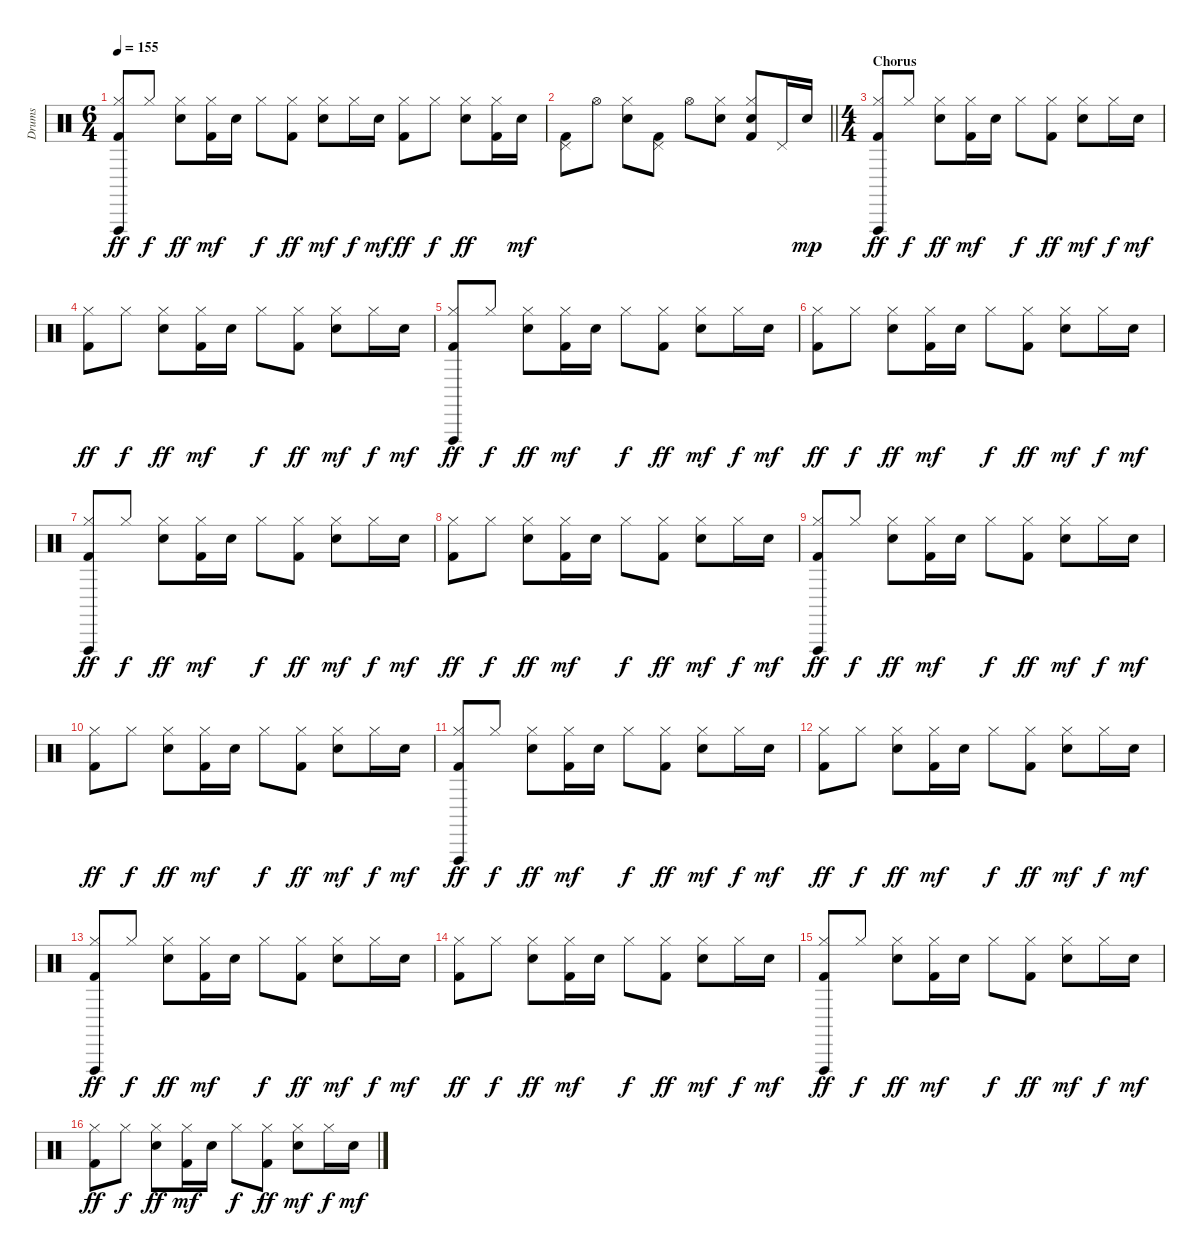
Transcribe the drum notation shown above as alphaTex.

\track ("Drums" "Drums") {instrument percussion}
\staff {score}
\articulation defaults
\ts (6 4)
\tempo 155
\clef neutral
\ks c
("Kick (hit) 2" "Hi-Hat (closed)" "Vibraslap (hit)").8{dy ff} "Hi-Hat (closed)".8{dy f} ("Snare (hit) 2" "Hi-Hat (closed)").8{dy ff} ("Kick (hit) 2" "Hi-Hat (closed)").16{dy mf} "Snare (hit) 2".16 "Hi-Hat (closed)".8{dy f} ("Kick (hit) 2" "Hi-Hat (closed)").8{dy ff} ("Snare (hit) 2" "Hi-Hat (closed)").8{dy mf} "Hi-Hat (closed)".16{dy f} "Snare (hit) 2".16{dy mf} ("Kick (hit) 2" "Hi-Hat (closed)").8{dy ff} "Hi-Hat (closed)".8{dy f} ("Snare (hit) 2" "Hi-Hat (closed)").8{dy ff} ("Kick (hit) 2" "Hi-Hat (closed)").16 "Snare (hit) 2".16{dy mf} |
\barLineRight lightlight
("Kick (hit) 2" "Pedal Hi-Hat (hit)").8 "Hi-Hat (open)".8 ("Snare (hit) 2" "Hi-Hat (closed)").8 ("Kick (hit) 2" "Pedal Hi-Hat (hit)").8 "Hi-Hat (open)".8 ("Snare (hit) 2" "Hi-Hat (closed)").8 ("Kick (hit) 2" "Snare (hit) 2" "Hi-Hat (closed)").8 "Pedal Hi-Hat (hit)".16 "Snare (hit) 2".16{dy mp} |
\ts (4 4)
\section ("" "Chorus")
("Kick (hit) 2" "Hi-Hat (closed)" "Vibraslap (hit)").8{dy ff} "Hi-Hat (closed)".8{dy f} ("Snare (hit) 2" "Hi-Hat (closed)").8{dy ff} ("Kick (hit) 2" "Hi-Hat (closed)").16{dy mf} "Snare (hit) 2".16 "Hi-Hat (closed)".8{dy f} ("Kick (hit) 2" "Hi-Hat (closed)").8{dy ff} ("Snare (hit) 2" "Hi-Hat (closed)").8{dy mf} "Hi-Hat (closed)".16{dy f} "Snare (hit) 2".16{dy mf} |
("Kick (hit) 2" "Hi-Hat (closed)").8{dy ff} "Hi-Hat (closed)".8{dy f} ("Snare (hit) 2" "Hi-Hat (closed)").8{dy ff} ("Kick (hit) 2" "Hi-Hat (closed)").16{dy mf} "Snare (hit) 2".16 "Hi-Hat (closed)".8{dy f} ("Kick (hit) 2" "Hi-Hat (closed)").8{dy ff} ("Snare (hit) 2" "Hi-Hat (closed)").8{dy mf} "Hi-Hat (closed)".16{dy f} "Snare (hit) 2".16{dy mf} |
("Kick (hit) 2" "Hi-Hat (closed)" "Vibraslap (hit)").8{dy ff} "Hi-Hat (closed)".8{dy f} ("Snare (hit) 2" "Hi-Hat (closed)").8{dy ff} ("Kick (hit) 2" "Hi-Hat (closed)").16{dy mf} "Snare (hit) 2".16 "Hi-Hat (closed)".8{dy f} ("Kick (hit) 2" "Hi-Hat (closed)").8{dy ff} ("Snare (hit) 2" "Hi-Hat (closed)").8{dy mf} "Hi-Hat (closed)".16{dy f} "Snare (hit) 2".16{dy mf} |
("Kick (hit) 2" "Hi-Hat (closed)").8{dy ff} "Hi-Hat (closed)".8{dy f} ("Snare (hit) 2" "Hi-Hat (closed)").8{dy ff} ("Kick (hit) 2" "Hi-Hat (closed)").16{dy mf} "Snare (hit) 2".16 "Hi-Hat (closed)".8{dy f} ("Kick (hit) 2" "Hi-Hat (closed)").8{dy ff} ("Snare (hit) 2" "Hi-Hat (closed)").8{dy mf} "Hi-Hat (closed)".16{dy f} "Snare (hit) 2".16{dy mf} |
("Kick (hit) 2" "Hi-Hat (closed)" "Vibraslap (hit)").8{dy ff} "Hi-Hat (closed)".8{dy f} ("Snare (hit) 2" "Hi-Hat (closed)").8{dy ff} ("Kick (hit) 2" "Hi-Hat (closed)").16{dy mf} "Snare (hit) 2".16 "Hi-Hat (closed)".8{dy f} ("Kick (hit) 2" "Hi-Hat (closed)").8{dy ff} ("Snare (hit) 2" "Hi-Hat (closed)").8{dy mf} "Hi-Hat (closed)".16{dy f} "Snare (hit) 2".16{dy mf} |
("Kick (hit) 2" "Hi-Hat (closed)").8{dy ff} "Hi-Hat (closed)".8{dy f} ("Snare (hit) 2" "Hi-Hat (closed)").8{dy ff} ("Kick (hit) 2" "Hi-Hat (closed)").16{dy mf} "Snare (hit) 2".16 "Hi-Hat (closed)".8{dy f} ("Kick (hit) 2" "Hi-Hat (closed)").8{dy ff} ("Snare (hit) 2" "Hi-Hat (closed)").8{dy mf} "Hi-Hat (closed)".16{dy f} "Snare (hit) 2".16{dy mf} |
("Kick (hit) 2" "Hi-Hat (closed)" "Vibraslap (hit)").8{dy ff} "Hi-Hat (closed)".8{dy f} ("Snare (hit) 2" "Hi-Hat (closed)").8{dy ff} ("Kick (hit) 2" "Hi-Hat (closed)").16{dy mf} "Snare (hit) 2".16 "Hi-Hat (closed)".8{dy f} ("Kick (hit) 2" "Hi-Hat (closed)").8{dy ff} ("Snare (hit) 2" "Hi-Hat (closed)").8{dy mf} "Hi-Hat (closed)".16{dy f} "Snare (hit) 2".16{dy mf} |
("Kick (hit) 2" "Hi-Hat (closed)").8{dy ff} "Hi-Hat (closed)".8{dy f} ("Snare (hit) 2" "Hi-Hat (closed)").8{dy ff} ("Kick (hit) 2" "Hi-Hat (closed)").16{dy mf} "Snare (hit) 2".16 "Hi-Hat (closed)".8{dy f} ("Kick (hit) 2" "Hi-Hat (closed)").8{dy ff} ("Snare (hit) 2" "Hi-Hat (closed)").8{dy mf} "Hi-Hat (closed)".16{dy f} "Snare (hit) 2".16{dy mf} |
("Kick (hit) 2" "Hi-Hat (closed)" "Vibraslap (hit)").8{dy ff} "Hi-Hat (closed)".8{dy f} ("Snare (hit) 2" "Hi-Hat (closed)").8{dy ff} ("Kick (hit) 2" "Hi-Hat (closed)").16{dy mf} "Snare (hit) 2".16 "Hi-Hat (closed)".8{dy f} ("Kick (hit) 2" "Hi-Hat (closed)").8{dy ff} ("Snare (hit) 2" "Hi-Hat (closed)").8{dy mf} "Hi-Hat (closed)".16{dy f} "Snare (hit) 2".16{dy mf} |
("Kick (hit) 2" "Hi-Hat (closed)").8{dy ff} "Hi-Hat (closed)".8{dy f} ("Snare (hit) 2" "Hi-Hat (closed)").8{dy ff} ("Kick (hit) 2" "Hi-Hat (closed)").16{dy mf} "Snare (hit) 2".16 "Hi-Hat (closed)".8{dy f} ("Kick (hit) 2" "Hi-Hat (closed)").8{dy ff} ("Snare (hit) 2" "Hi-Hat (closed)").8{dy mf} "Hi-Hat (closed)".16{dy f} "Snare (hit) 2".16{dy mf} |
("Kick (hit) 2" "Hi-Hat (closed)" "Vibraslap (hit)").8{dy ff} "Hi-Hat (closed)".8{dy f} ("Snare (hit) 2" "Hi-Hat (closed)").8{dy ff} ("Kick (hit) 2" "Hi-Hat (closed)").16{dy mf} "Snare (hit) 2".16 "Hi-Hat (closed)".8{dy f} ("Kick (hit) 2" "Hi-Hat (closed)").8{dy ff} ("Snare (hit) 2" "Hi-Hat (closed)").8{dy mf} "Hi-Hat (closed)".16{dy f} "Snare (hit) 2".16{dy mf} |
("Kick (hit) 2" "Hi-Hat (closed)").8{dy ff} "Hi-Hat (closed)".8{dy f} ("Snare (hit) 2" "Hi-Hat (closed)").8{dy ff} ("Kick (hit) 2" "Hi-Hat (closed)").16{dy mf} "Snare (hit) 2".16 "Hi-Hat (closed)".8{dy f} ("Kick (hit) 2" "Hi-Hat (closed)").8{dy ff} ("Snare (hit) 2" "Hi-Hat (closed)").8{dy mf} "Hi-Hat (closed)".16{dy f} "Snare (hit) 2".16{dy mf} |
("Kick (hit) 2" "Hi-Hat (closed)" "Vibraslap (hit)").8{dy ff} "Hi-Hat (closed)".8{dy f} ("Snare (hit) 2" "Hi-Hat (closed)").8{dy ff} ("Kick (hit) 2" "Hi-Hat (closed)").16{dy mf} "Snare (hit) 2".16 "Hi-Hat (closed)".8{dy f} ("Kick (hit) 2" "Hi-Hat (closed)").8{dy ff} ("Snare (hit) 2" "Hi-Hat (closed)").8{dy mf} "Hi-Hat (closed)".16{dy f} "Snare (hit) 2".16{dy mf} |
("Kick (hit) 2" "Hi-Hat (closed)").8{dy ff} "Hi-Hat (closed)".8{dy f} ("Snare (hit) 2" "Hi-Hat (closed)").8{dy ff} ("Kick (hit) 2" "Hi-Hat (closed)").16{dy mf} "Snare (hit) 2".16 "Hi-Hat (closed)".8{dy f} ("Kick (hit) 2" "Hi-Hat (closed)").8{dy ff} ("Snare (hit) 2" "Hi-Hat (closed)").8{dy mf} "Hi-Hat (closed)".16{dy f} "Snare (hit) 2".16{dy mf}
